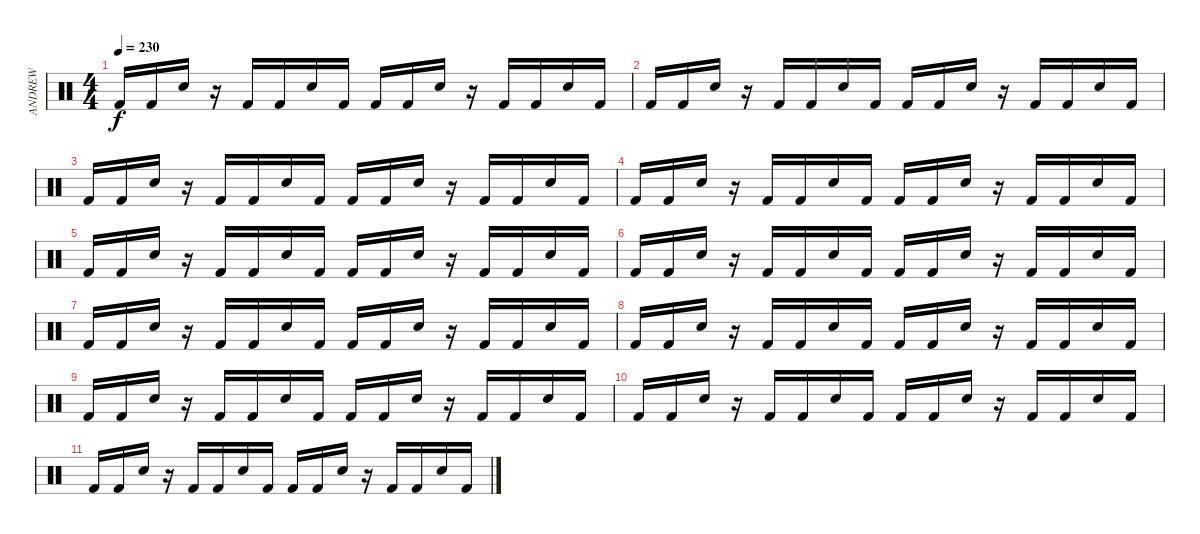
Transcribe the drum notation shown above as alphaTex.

\track ("ANDREW" "ANDREW") {instrument percussion}
\staff {score}
\articulation defaults
\ts (4 4)
\tempo 230
\clef neutral
\ks c "Kick (hit) 2".16{dy f} "Kick (hit) 2".16 "Electric Snare (hit)".16
r.16 "Kick (hit) 2".16 "Kick (hit) 2".16 "Electric Snare (hit)".16 "Kick (hit) 2".16 "Kick (hit) 2".16 "Kick (hit) 2".16 "Electric Snare (hit)".16 r.16 "Kick (hit) 2".16 "Kick (hit) 2".16 "Electric Snare (hit)".16 "Kick (hit) 2".16 |
"Kick (hit) 2".16 "Kick (hit) 2".16 "Electric Snare (hit)".16 r.16 "Kick (hit) 2".16 "Kick (hit) 2".16 "Electric Snare (hit)".16 "Kick (hit) 2".16 "Kick (hit) 2".16 "Kick (hit) 2".16 "Electric Snare (hit)".16 r.16 "Kick (hit) 2".16 "Kick (hit) 2".16 "Electric Snare (hit)".16 "Kick (hit) 2".16 |
"Kick (hit) 2".16 "Kick (hit) 2".16 "Electric Snare (hit)".16 r.16 "Kick (hit) 2".16 "Kick (hit) 2".16 "Electric Snare (hit)".16 "Kick (hit) 2".16 "Kick (hit) 2".16 "Kick (hit) 2".16 "Electric Snare (hit)".16 r.16 "Kick (hit) 2".16 "Kick (hit) 2".16 "Electric Snare (hit)".16 "Kick (hit) 2".16 |
"Kick (hit) 2".16 "Kick (hit) 2".16 "Electric Snare (hit)".16 r.16 "Kick (hit) 2".16 "Kick (hit) 2".16 "Electric Snare (hit)".16 "Kick (hit) 2".16 "Kick (hit) 2".16 "Kick (hit) 2".16 "Electric Snare (hit)".16 r.16 "Kick (hit) 2".16 "Kick (hit) 2".16 "Electric Snare (hit)".16 "Kick (hit) 2".16 |
"Kick (hit) 2".16 "Kick (hit) 2".16 "Electric Snare (hit)".16 r.16 "Kick (hit) 2".16 "Kick (hit) 2".16 "Electric Snare (hit)".16 "Kick (hit) 2".16 "Kick (hit) 2".16 "Kick (hit) 2".16 "Electric Snare (hit)".16 r.16 "Kick (hit) 2".16 "Kick (hit) 2".16 "Electric Snare (hit)".16 "Kick (hit) 2".16 |
"Kick (hit) 2".16 "Kick (hit) 2".16 "Electric Snare (hit)".16 r.16 "Kick (hit) 2".16 "Kick (hit) 2".16 "Electric Snare (hit)".16 "Kick (hit) 2".16 "Kick (hit) 2".16 "Kick (hit) 2".16 "Electric Snare (hit)".16 r.16 "Kick (hit) 2".16 "Kick (hit) 2".16 "Electric Snare (hit)".16 "Kick (hit) 2".16 |
"Kick (hit) 2".16 "Kick (hit) 2".16 "Electric Snare (hit)".16 r.16 "Kick (hit) 2".16 "Kick (hit) 2".16 "Electric Snare (hit)".16 "Kick (hit) 2".16 "Kick (hit) 2".16 "Kick (hit) 2".16 "Electric Snare (hit)".16 r.16 "Kick (hit) 2".16 "Kick (hit) 2".16 "Electric Snare (hit)".16 "Kick (hit) 2".16 |
"Kick (hit) 2".16 "Kick (hit) 2".16 "Electric Snare (hit)".16 r.16 "Kick (hit) 2".16 "Kick (hit) 2".16 "Electric Snare (hit)".16 "Kick (hit) 2".16 "Kick (hit) 2".16 "Kick (hit) 2".16 "Electric Snare (hit)".16 r.16 "Kick (hit) 2".16 "Kick (hit) 2".16 "Electric Snare (hit)".16 "Kick (hit) 2".16 |
"Kick (hit) 2".16 "Kick (hit) 2".16 "Electric Snare (hit)".16 r.16 "Kick (hit) 2".16 "Kick (hit) 2".16 "Electric Snare (hit)".16 "Kick (hit) 2".16 "Kick (hit) 2".16 "Kick (hit) 2".16 "Electric Snare (hit)".16 r.16 "Kick (hit) 2".16 "Kick (hit) 2".16 "Electric Snare (hit)".16 "Kick (hit) 2".16 |
"Kick (hit) 2".16 "Kick (hit) 2".16 "Electric Snare (hit)".16 r.16 "Kick (hit) 2".16 "Kick (hit) 2".16 "Electric Snare (hit)".16 "Kick (hit) 2".16 "Kick (hit) 2".16 "Kick (hit) 2".16 "Electric Snare (hit)".16 r.16 "Kick (hit) 2".16 "Kick (hit) 2".16 "Electric Snare (hit)".16 "Kick (hit) 2".16 |
"Kick (hit) 2".16 "Kick (hit) 2".16 "Electric Snare (hit)".16 r.16 "Kick (hit) 2".16 "Kick (hit) 2".16 "Electric Snare (hit)".16 "Kick (hit) 2".16 "Kick (hit) 2".16 "Kick (hit) 2".16 "Electric Snare (hit)".16 r.16 "Kick (hit) 2".16 "Kick (hit) 2".16 "Electric Snare (hit)".16 "Kick (hit) 2".16
